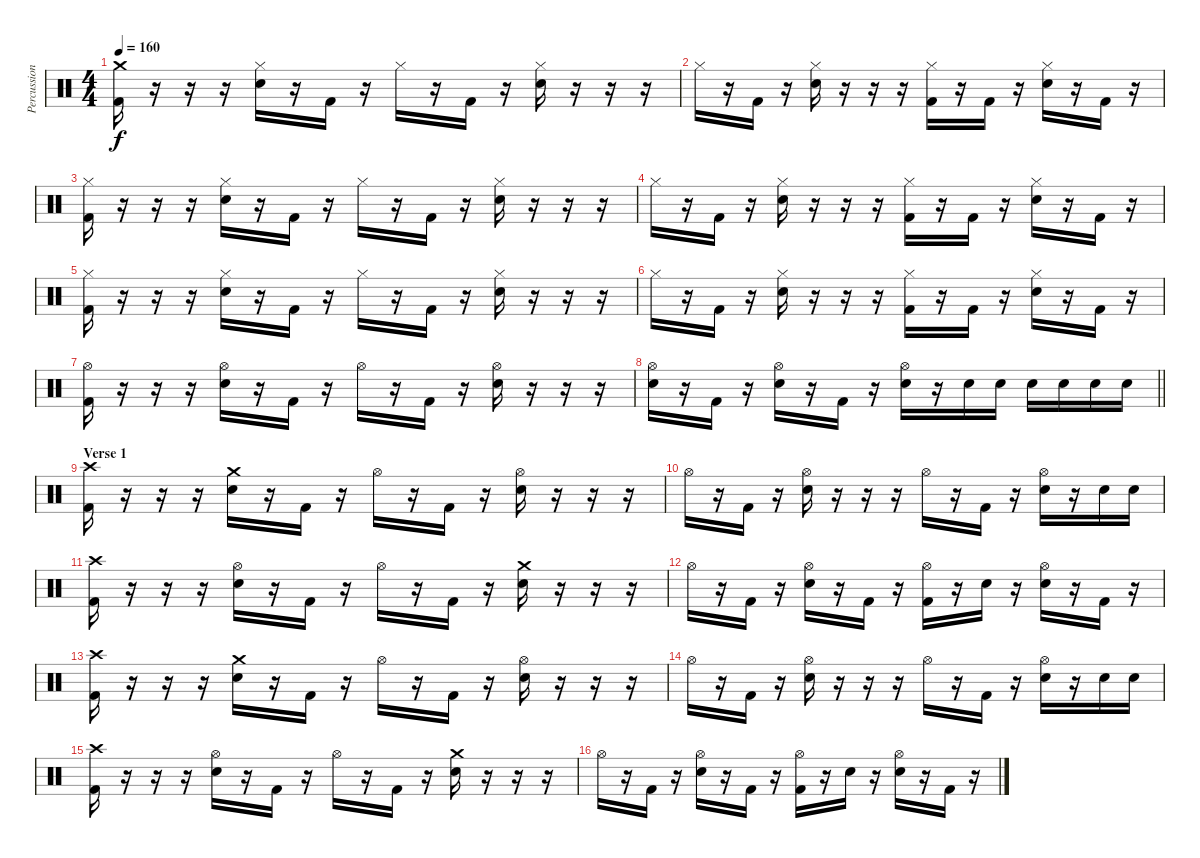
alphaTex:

\track ("Percussion" "Percussion") {instrument percussion}
\staff {score}
\articulation defaults
\ts (4 4)
\tempo 160
\clef neutral
\ks c
("Crash medium (hit)" "Kick (hit) 2").16{dy f} r.16 r.16 r.16 ("Hi-Hat (closed)" "Snare (hit) 2").16 r.16 "Kick (hit) 2".16 r.16 "Hi-Hat (closed)".16 r.16 "Kick (hit) 2".16 r.16 ("Hi-Hat (closed)" "Snare (hit) 2").16 r.16 r.16 r.16 |
"Hi-Hat (closed)".16 r.16 "Kick (hit) 2".16 r.16 ("Hi-Hat (closed)" "Snare (hit) 2").16 r.16 r.16 r.16 ("Hi-Hat (closed)" "Kick (hit) 2").16 r.16 "Kick (hit) 2".16 r.16 ("Hi-Hat (closed)" "Snare (hit) 2").16 r.16 "Kick (hit) 2".16 r.16 |
("Hi-Hat (closed)" "Kick (hit) 2").16 r.16 r.16 r.16 ("Hi-Hat (closed)" "Snare (hit) 2").16 r.16 "Kick (hit) 2".16 r.16 "Hi-Hat (closed)".16 r.16 "Kick (hit) 2".16 r.16 ("Hi-Hat (closed)" "Snare (hit) 2").16 r.16 r.16 r.16 |
"Hi-Hat (closed)".16 r.16 "Kick (hit) 2".16 r.16 ("Hi-Hat (closed)" "Snare (hit) 2").16 r.16 r.16 r.16 ("Hi-Hat (closed)" "Kick (hit) 2").16 r.16 "Kick (hit) 2".16 r.16 ("Hi-Hat (closed)" "Snare (hit) 2").16 r.16 "Kick (hit) 2".16 r.16 |
("Hi-Hat (closed)" "Kick (hit) 2").16 r.16 r.16 r.16 ("Hi-Hat (closed)" "Snare (hit) 2").16 r.16 "Kick (hit) 2".16 r.16 "Hi-Hat (closed)".16 r.16 "Kick (hit) 2".16 r.16 ("Hi-Hat (closed)" "Snare (hit) 2").16 r.16 r.16 r.16 |
"Hi-Hat (closed)".16 r.16 "Kick (hit) 2".16 r.16 ("Hi-Hat (closed)" "Snare (hit) 2").16 r.16 r.16 r.16 ("Hi-Hat (closed)" "Kick (hit) 2").16 r.16 "Kick (hit) 2".16 r.16 ("Hi-Hat (closed)" "Snare (hit) 2").16 r.16 "Kick (hit) 2".16 r.16 |
("Hi-Hat (open)" "Kick (hit) 2").16 r.16 r.16 r.16 ("Hi-Hat (open)" "Snare (hit) 2").16 r.16 "Kick (hit) 2".16 r.16 "Hi-Hat (open)".16 r.16 "Kick (hit) 2".16 r.16 ("Hi-Hat (open)" "Snare (hit) 2").16 r.16 r.16 r.16 |
\barLineRight lightlight
("Hi-Hat (open)" "Snare (hit) 2").16 r.16 "Kick (hit) 2".16 r.16 ("Hi-Hat (open)" "Snare (hit) 2").16 r.16 "Kick (hit) 2".16 r.16 ("Hi-Hat (open)" "Snare (hit) 2").16 r.16 "Snare (hit) 2".16 "Snare (hit) 2".16 "Snare (hit) 2".16 "Snare (hit) 2".16 "Snare (hit) 2".16 "Snare (hit) 2".16 |
\section ("" "Verse 1")
("Crash high (hit)" "Kick (hit) 2").16 r.16 r.16 r.16 ("Crash medium (hit)" "Snare (hit) 2").16 r.16 "Kick (hit) 2".16 r.16 "Hi-Hat (open)".16 r.16 "Kick (hit) 2".16 r.16 ("Hi-Hat (open)" "Snare (hit) 2").16 r.16 r.16 r.16 |
"Hi-Hat (open)".16 r.16 "Kick (hit) 2".16 r.16 ("Hi-Hat (open)" "Snare (hit) 2").16 r.16 r.16 r.16 "Hi-Hat (open)".16 r.16 "Kick (hit) 2".16 r.16 ("Hi-Hat (open)" "Snare (hit) 2").16 r.16 "Snare (hit) 2".16 "Snare (hit) 2".16 |
("Crash high (hit)" "Kick (hit) 2").16 r.16 r.16 r.16 ("Hi-Hat (open)" "Snare (hit) 2").16 r.16 "Kick (hit) 2".16 r.16 "Hi-Hat (open)".16 r.16 "Kick (hit) 2".16 r.16 ("Crash medium (hit)" "Snare (hit) 2").16 r.16 r.16 r.16 |
"Hi-Hat (open)".16 r.16 "Kick (hit) 2".16 r.16 ("Hi-Hat (open)" "Snare (hit) 2").16 r.16 "Kick (hit) 2".16 r.16 ("Hi-Hat (open)" "Kick (hit) 2").16 r.16 "Snare (hit) 2".16 r.16 ("Hi-Hat (open)" "Snare (hit) 2").16 r.16 "Kick (hit) 2".16 r.16 |
("Crash high (hit)" "Kick (hit) 2").16 r.16 r.16 r.16 ("Crash medium (hit)" "Snare (hit) 2").16 r.16 "Kick (hit) 2".16 r.16 "Hi-Hat (open)".16 r.16 "Kick (hit) 2".16 r.16 ("Hi-Hat (open)" "Snare (hit) 2").16 r.16 r.16 r.16 |
"Hi-Hat (open)".16 r.16 "Kick (hit) 2".16 r.16 ("Hi-Hat (open)" "Snare (hit) 2").16 r.16 r.16 r.16 "Hi-Hat (open)".16 r.16 "Kick (hit) 2".16 r.16 ("Hi-Hat (open)" "Snare (hit) 2").16 r.16 "Snare (hit) 2".16 "Snare (hit) 2".16 |
("Crash high (hit)" "Kick (hit) 2").16 r.16 r.16 r.16 ("Hi-Hat (open)" "Snare (hit) 2").16 r.16 "Kick (hit) 2".16 r.16 "Hi-Hat (open)".16 r.16 "Kick (hit) 2".16 r.16 ("Crash medium (hit)" "Snare (hit) 2").16 r.16 r.16 r.16 |
"Hi-Hat (open)".16 r.16 "Kick (hit) 2".16 r.16 ("Hi-Hat (open)" "Snare (hit) 2").16 r.16 "Kick (hit) 2".16 r.16 ("Hi-Hat (open)" "Kick (hit) 2").16 r.16 "Snare (hit) 2".16 r.16 ("Hi-Hat (open)" "Snare (hit) 2").16 r.16 "Kick (hit) 2".16 r.16
